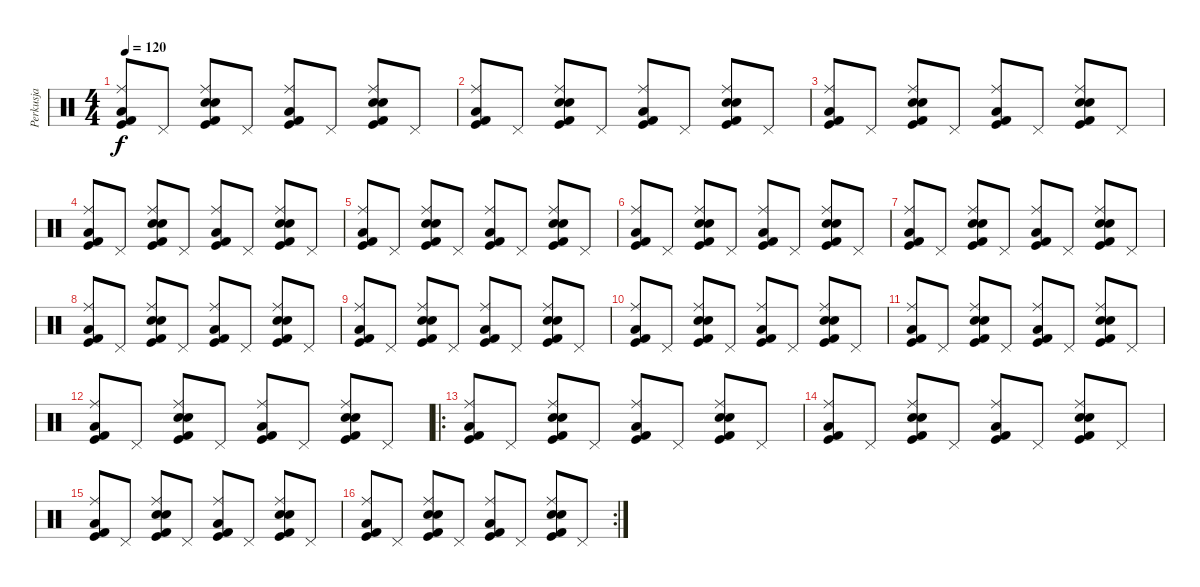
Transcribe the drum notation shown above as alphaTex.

\track ("Perkusja" "Perkusja") {instrument percussion}
\staff {score}
\articulation defaults
\ts (4 4)
\tempo 120
\clef neutral
\ks c
("Kick (hit) 2" "Kick (hit)" "Low Floor Tom (hit)" "Ride (middle)").8{dy f} "Pedal Hi-Hat (hit)".8 ("Kick (hit) 2" "Kick (hit)" "Snare (hit) 2" "Electric Snare (hit)" "Ride (middle)").8 "Pedal Hi-Hat (hit)".8 ("Kick (hit) 2" "Kick (hit)" "Low Floor Tom (hit)" "Ride (middle)").8 "Pedal Hi-Hat (hit)".8 ("Kick (hit) 2" "Kick (hit)" "Snare (hit) 2" "Electric Snare (hit)" "Ride (middle)").8 "Pedal Hi-Hat (hit)".8 |
("Kick (hit) 2" "Kick (hit)" "Low Floor Tom (hit)" "Ride (middle)").8 "Pedal Hi-Hat (hit)".8 ("Kick (hit) 2" "Kick (hit)" "Snare (hit) 2" "Electric Snare (hit)" "Ride (middle)").8 "Pedal Hi-Hat (hit)".8 ("Kick (hit) 2" "Kick (hit)" "Low Floor Tom (hit)" "Ride (middle)").8 "Pedal Hi-Hat (hit)".8 ("Kick (hit) 2" "Kick (hit)" "Snare (hit) 2" "Electric Snare (hit)" "Ride (middle)").8 "Pedal Hi-Hat (hit)".8 |
("Kick (hit) 2" "Kick (hit)" "Low Floor Tom (hit)" "Ride (middle)").8 "Pedal Hi-Hat (hit)".8 ("Kick (hit) 2" "Kick (hit)" "Snare (hit) 2" "Electric Snare (hit)" "Ride (middle)").8 "Pedal Hi-Hat (hit)".8 ("Kick (hit) 2" "Kick (hit)" "Low Floor Tom (hit)" "Ride (middle)").8 "Pedal Hi-Hat (hit)".8 ("Kick (hit) 2" "Kick (hit)" "Snare (hit) 2" "Electric Snare (hit)" "Ride (middle)").8 "Pedal Hi-Hat (hit)".8 |
("Kick (hit) 2" "Kick (hit)" "Low Floor Tom (hit)" "Ride (middle)").8 "Pedal Hi-Hat (hit)".8 ("Kick (hit) 2" "Kick (hit)" "Snare (hit) 2" "Electric Snare (hit)" "Ride (middle)").8 "Pedal Hi-Hat (hit)".8 ("Kick (hit) 2" "Kick (hit)" "Low Floor Tom (hit)" "Ride (middle)").8 "Pedal Hi-Hat (hit)".8 ("Kick (hit) 2" "Kick (hit)" "Snare (hit) 2" "Electric Snare (hit)" "Ride (middle)").8 "Pedal Hi-Hat (hit)".8 |
("Kick (hit) 2" "Kick (hit)" "Low Floor Tom (hit)" "Ride (middle)").8 "Pedal Hi-Hat (hit)".8 ("Kick (hit) 2" "Kick (hit)" "Snare (hit) 2" "Electric Snare (hit)" "Ride (middle)").8 "Pedal Hi-Hat (hit)".8 ("Kick (hit) 2" "Kick (hit)" "Low Floor Tom (hit)" "Ride (middle)").8 "Pedal Hi-Hat (hit)".8 ("Kick (hit) 2" "Kick (hit)" "Snare (hit) 2" "Electric Snare (hit)" "Ride (middle)").8 "Pedal Hi-Hat (hit)".8 |
("Kick (hit) 2" "Kick (hit)" "Low Floor Tom (hit)" "Ride (middle)").8 "Pedal Hi-Hat (hit)".8 ("Kick (hit) 2" "Kick (hit)" "Snare (hit) 2" "Electric Snare (hit)" "Ride (middle)").8 "Pedal Hi-Hat (hit)".8 ("Kick (hit) 2" "Kick (hit)" "Low Floor Tom (hit)" "Ride (middle)").8 "Pedal Hi-Hat (hit)".8 ("Kick (hit) 2" "Kick (hit)" "Snare (hit) 2" "Electric Snare (hit)" "Ride (middle)").8 "Pedal Hi-Hat (hit)".8 |
("Kick (hit) 2" "Kick (hit)" "Low Floor Tom (hit)" "Ride (middle)").8 "Pedal Hi-Hat (hit)".8 ("Kick (hit) 2" "Kick (hit)" "Snare (hit) 2" "Electric Snare (hit)" "Ride (middle)").8 "Pedal Hi-Hat (hit)".8 ("Kick (hit) 2" "Kick (hit)" "Low Floor Tom (hit)" "Ride (middle)").8 "Pedal Hi-Hat (hit)".8 ("Kick (hit) 2" "Kick (hit)" "Snare (hit) 2" "Electric Snare (hit)" "Ride (middle)").8 "Pedal Hi-Hat (hit)".8 |
("Kick (hit) 2" "Kick (hit)" "Low Floor Tom (hit)" "Ride (middle)").8 "Pedal Hi-Hat (hit)".8 ("Kick (hit) 2" "Kick (hit)" "Snare (hit) 2" "Electric Snare (hit)" "Ride (middle)").8 "Pedal Hi-Hat (hit)".8 ("Kick (hit) 2" "Kick (hit)" "Low Floor Tom (hit)" "Ride (middle)").8 "Pedal Hi-Hat (hit)".8 ("Kick (hit) 2" "Kick (hit)" "Snare (hit) 2" "Electric Snare (hit)" "Ride (middle)").8 "Pedal Hi-Hat (hit)".8 |
("Kick (hit) 2" "Kick (hit)" "Low Floor Tom (hit)" "Ride (middle)").8 "Pedal Hi-Hat (hit)".8 ("Kick (hit) 2" "Kick (hit)" "Snare (hit) 2" "Electric Snare (hit)" "Ride (middle)").8 "Pedal Hi-Hat (hit)".8 ("Kick (hit) 2" "Kick (hit)" "Low Floor Tom (hit)" "Ride (middle)").8 "Pedal Hi-Hat (hit)".8 ("Kick (hit) 2" "Kick (hit)" "Snare (hit) 2" "Electric Snare (hit)" "Ride (middle)").8 "Pedal Hi-Hat (hit)".8 |
("Kick (hit) 2" "Kick (hit)" "Low Floor Tom (hit)" "Ride (middle)").8 "Pedal Hi-Hat (hit)".8 ("Kick (hit) 2" "Kick (hit)" "Snare (hit) 2" "Electric Snare (hit)" "Ride (middle)").8 "Pedal Hi-Hat (hit)".8 ("Kick (hit) 2" "Kick (hit)" "Low Floor Tom (hit)" "Ride (middle)").8 "Pedal Hi-Hat (hit)".8 ("Kick (hit) 2" "Kick (hit)" "Snare (hit) 2" "Electric Snare (hit)" "Ride (middle)").8 "Pedal Hi-Hat (hit)".8 |
("Kick (hit) 2" "Kick (hit)" "Low Floor Tom (hit)" "Ride (middle)").8 "Pedal Hi-Hat (hit)".8 ("Kick (hit) 2" "Kick (hit)" "Snare (hit) 2" "Electric Snare (hit)" "Ride (middle)").8 "Pedal Hi-Hat (hit)".8 ("Kick (hit) 2" "Kick (hit)" "Low Floor Tom (hit)" "Ride (middle)").8 "Pedal Hi-Hat (hit)".8 ("Kick (hit) 2" "Kick (hit)" "Snare (hit) 2" "Electric Snare (hit)" "Ride (middle)").8 "Pedal Hi-Hat (hit)".8 |
("Kick (hit) 2" "Kick (hit)" "Low Floor Tom (hit)" "Ride (middle)").8 "Pedal Hi-Hat (hit)".8 ("Kick (hit) 2" "Kick (hit)" "Snare (hit) 2" "Electric Snare (hit)" "Ride (middle)").8 "Pedal Hi-Hat (hit)".8 ("Kick (hit) 2" "Kick (hit)" "Low Floor Tom (hit)" "Ride (middle)").8 "Pedal Hi-Hat (hit)".8 ("Kick (hit) 2" "Kick (hit)" "Snare (hit) 2" "Electric Snare (hit)" "Ride (middle)").8 "Pedal Hi-Hat (hit)".8 |
\ro
("Kick (hit) 2" "Kick (hit)" "Low Floor Tom (hit)" "Ride (middle)").8 "Pedal Hi-Hat (hit)".8 ("Kick (hit) 2" "Kick (hit)" "Snare (hit) 2" "Electric Snare (hit)" "Ride (middle)").8 "Pedal Hi-Hat (hit)".8 ("Kick (hit) 2" "Kick (hit)" "Low Floor Tom (hit)" "Ride (middle)").8 "Pedal Hi-Hat (hit)".8 ("Kick (hit) 2" "Kick (hit)" "Snare (hit) 2" "Electric Snare (hit)" "Ride (middle)").8 "Pedal Hi-Hat (hit)".8 |
("Kick (hit) 2" "Kick (hit)" "Low Floor Tom (hit)" "Ride (middle)").8 "Pedal Hi-Hat (hit)".8 ("Kick (hit) 2" "Kick (hit)" "Snare (hit) 2" "Electric Snare (hit)" "Ride (middle)").8 "Pedal Hi-Hat (hit)".8 ("Kick (hit) 2" "Kick (hit)" "Low Floor Tom (hit)" "Ride (middle)").8 "Pedal Hi-Hat (hit)".8 ("Kick (hit) 2" "Kick (hit)" "Snare (hit) 2" "Electric Snare (hit)" "Ride (middle)").8 "Pedal Hi-Hat (hit)".8 |
("Kick (hit) 2" "Kick (hit)" "Low Floor Tom (hit)" "Ride (middle)").8 "Pedal Hi-Hat (hit)".8 ("Kick (hit) 2" "Kick (hit)" "Snare (hit) 2" "Electric Snare (hit)" "Ride (middle)").8 "Pedal Hi-Hat (hit)".8 ("Kick (hit) 2" "Kick (hit)" "Low Floor Tom (hit)" "Ride (middle)").8 "Pedal Hi-Hat (hit)".8 ("Kick (hit) 2" "Kick (hit)" "Snare (hit) 2" "Electric Snare (hit)" "Ride (middle)").8 "Pedal Hi-Hat (hit)".8 |
\rc 2
("Kick (hit) 2" "Kick (hit)" "Low Floor Tom (hit)" "Ride (middle)").8 "Pedal Hi-Hat (hit)".8 ("Kick (hit) 2" "Kick (hit)" "Snare (hit) 2" "Electric Snare (hit)" "Ride (middle)").8 "Pedal Hi-Hat (hit)".8 ("Kick (hit) 2" "Kick (hit)" "Low Floor Tom (hit)" "Ride (middle)").8 "Pedal Hi-Hat (hit)".8 ("Kick (hit) 2" "Kick (hit)" "Snare (hit) 2" "Electric Snare (hit)" "Ride (middle)").8 "Pedal Hi-Hat (hit)".8
